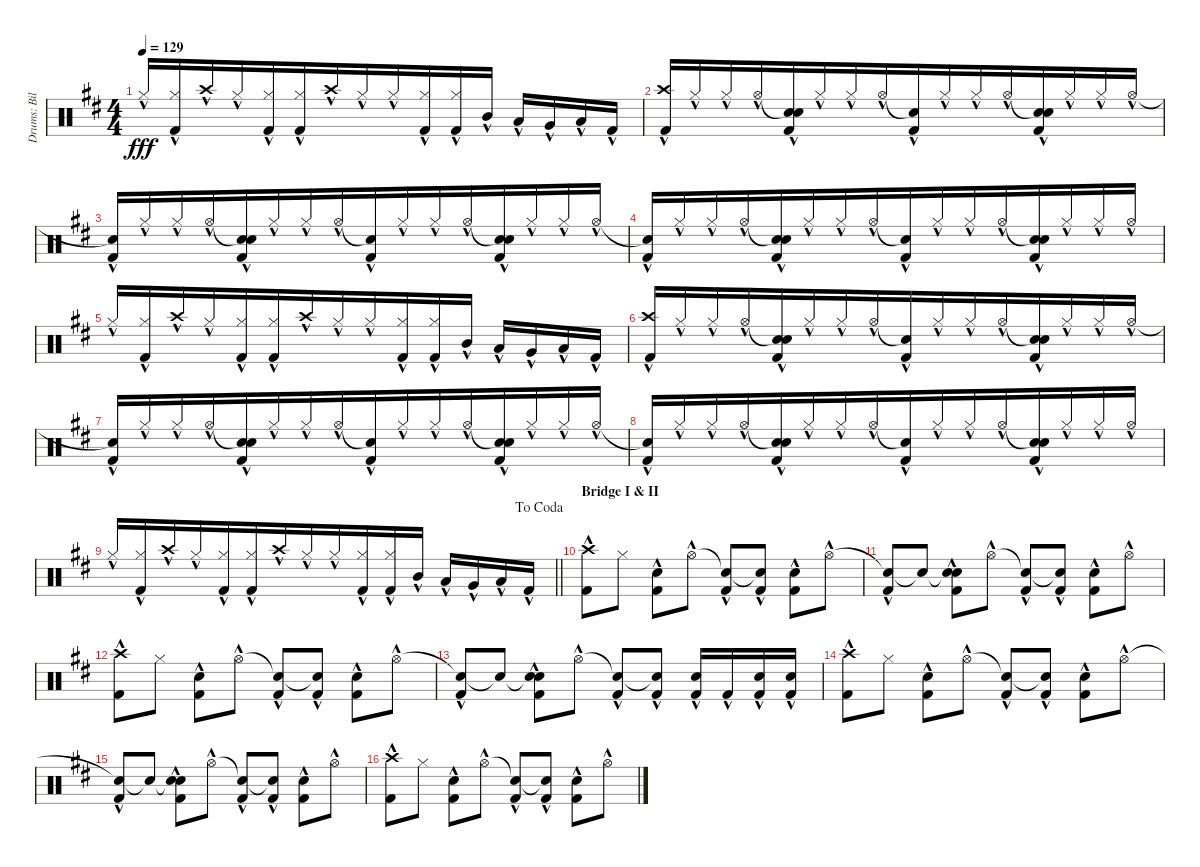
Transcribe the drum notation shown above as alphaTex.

\track ("Drums: Bill" "Drums: Bil") {instrument percussion}
\staff {score}
\articulation defaults
\ts (4 4)
\tempo 129
\clef neutral
\ks d "Hi-Hat (closed)"{hac}.16{dy fff beam Up beam merge}
("Hi-Hat (closed)"{hac} "Kick (hit) 2"{hac}).16{beam Up} "Crash high (hit)"{hac}.16{beam merge} "Hi-Hat (closed)"{hac}.16{beam Up beam merge} ("Hi-Hat (closed)"{hac} "Kick (hit) 2"{hac}).16{beam Up beam merge} ("Hi-Hat (closed)"{hac} "Kick (hit) 2"{hac}).16{beam Up} "Crash high (hit)"{hac}.16{beam merge} "Hi-Hat (closed)"{hac}.16{beam Up beam merge} "Hi-Hat (closed)"{hac}.16{beam Up beam merge} ("Hi-Hat (closed)"{hac} "Kick (hit) 2"{hac}).16{beam Up beam merge} ("Hi-Hat (closed)"{hac} "Kick (hit) 2"{hac}).16{beam Up} "Mid Tom (hit)"{hac}.16 "Low Tom (hit)"{hac}.16 "Very Low Tom (hit)"{hac}.16 "Low Floor Tom (hit)"{hac}.16 "Kick (hit) 2"{hac}.16 |
("Crash high (hit)"{hac} "Kick (hit) 2"{hac}).16{beam Up beam merge} "Hi-Hat (closed)"{hac}.16{beam Up beam merge} "Hi-Hat (closed)"{hac}.16{beam Up beam merge} "Hi-Hat (open)"{hac}.16{beam Up beam merge} ("Snare (hit)"{t} "Electric Snare (hit)"{hac} "Kick (hit) 2"{hac}).16{beam Up beam merge} "Hi-Hat (closed)"{hac}.16{beam Up beam merge} "Hi-Hat (closed)"{hac}.16{beam Up beam merge} "Hi-Hat (open)"{hac}.16{beam Up beam merge} ("Snare (hit)"{t} "Kick (hit) 2"{hac}).16{beam Up beam merge} "Hi-Hat (closed)"{hac}.16{beam Up beam merge} "Hi-Hat (closed)"{hac}.16{beam Up beam merge} "Hi-Hat (open)"{hac}.16{beam Up beam merge} ("Snare (hit)"{t} "Electric Snare (hit)"{hac} "Kick (hit) 2"{hac}).16{beam Up beam merge} "Hi-Hat (closed)"{hac}.16{beam Up beam merge} "Hi-Hat (closed)"{hac}.16{beam Up beam merge} "Hi-Hat (open)"{hac}.16{beam Up} |
("Snare (hit)"{t} "Kick (hit) 2"{hac}).16{beam Up beam merge} "Hi-Hat (closed)"{hac}.16{beam Up beam merge} "Hi-Hat (closed)"{hac}.16{beam Up beam merge} "Hi-Hat (open)"{hac}.16{beam Up beam merge} ("Snare (hit)"{t} "Electric Snare (hit)"{hac} "Kick (hit) 2"{hac}).16{beam Up beam merge} "Hi-Hat (closed)"{hac}.16{beam Up beam merge} "Hi-Hat (closed)"{hac}.16{beam Up beam merge} "Hi-Hat (open)"{hac}.16{beam Up beam merge} ("Snare (hit)"{t} "Kick (hit) 2"{hac}).16{beam Up beam merge} "Hi-Hat (closed)"{hac}.16{beam Up beam merge} "Hi-Hat (closed)"{hac}.16{beam Up beam merge} "Hi-Hat (open)"{hac}.16{beam Up beam merge} ("Snare (hit)"{t} "Electric Snare (hit)" "Kick (hit) 2"{hac}).16{beam Up beam merge} "Hi-Hat (closed)"{hac}.16{beam Up beam merge} "Hi-Hat (closed)"{hac}.16{beam Up beam merge} "Hi-Hat (open)"{hac}.16{beam Up} |
("Snare (hit)"{t} "Kick (hit) 2"{hac}).16{beam Up beam merge} "Hi-Hat (closed)"{hac}.16{beam Up beam merge} "Hi-Hat (closed)"{hac}.16{beam Up beam merge} "Hi-Hat (open)"{hac}.16{beam Up beam merge} ("Snare (hit)"{t} "Electric Snare (hit)"{hac} "Kick (hit) 2"{hac}).16{beam Up beam merge} "Hi-Hat (closed)"{hac}.16{beam Up beam merge} "Hi-Hat (closed)"{hac}.16{beam Up beam merge} "Hi-Hat (open)"{hac}.16{beam Up beam merge} ("Snare (hit)"{t} "Kick (hit) 2"{hac}).16{beam Up beam merge} "Hi-Hat (closed)"{hac}.16{beam Up beam merge} "Hi-Hat (closed)"{hac}.16{beam Up beam merge} "Hi-Hat (open)"{hac}.16{beam Up beam merge} ("Snare (hit)"{t} "Electric Snare (hit)" "Kick (hit) 2"{hac}).16{beam Up beam merge} "Hi-Hat (closed)"{hac}.16{beam Up beam merge} "Hi-Hat (closed)"{hac}.16{beam Up beam merge} "Hi-Hat (open)"{hac}.16{beam Up} |
"Hi-Hat (closed)"{hac}.16{beam Up beam merge} ("Hi-Hat (closed)"{hac} "Kick (hit) 2"{hac}).16{beam Up} "Crash high (hit)"{hac}.16{beam merge} "Hi-Hat (closed)"{hac}.16{beam Up beam merge} ("Hi-Hat (closed)"{hac} "Kick (hit) 2"{hac}).16{beam Up beam merge} ("Hi-Hat (closed)"{hac} "Kick (hit) 2"{hac}).16{beam Up} "Crash high (hit)"{hac}.16{beam merge} "Hi-Hat (closed)"{hac}.16{beam Up beam merge} "Hi-Hat (closed)"{hac}.16{beam Up beam merge} ("Hi-Hat (closed)"{hac} "Kick (hit) 2"{hac}).16{beam Up beam merge} ("Hi-Hat (closed)"{hac} "Kick (hit) 2"{hac}).16{beam Up} "Mid Tom (hit)"{hac}.16 "Low Tom (hit)"{hac}.16 "Very Low Tom (hit)"{hac}.16 "Low Floor Tom (hit)"{hac}.16 "Kick (hit) 2"{hac}.16 |
("Crash high (hit)"{hac} "Kick (hit) 2"{hac}).16{beam Up beam merge} "Hi-Hat (closed)"{hac}.16{beam Up beam merge} "Hi-Hat (closed)"{hac}.16{beam Up beam merge} "Hi-Hat (open)"{hac}.16{beam Up beam merge} ("Snare (hit)"{t} "Electric Snare (hit)"{hac} "Kick (hit) 2"{hac}).16{beam Up beam merge} "Hi-Hat (closed)"{hac}.16{beam Up beam merge} "Hi-Hat (closed)"{hac}.16{beam Up beam merge} "Hi-Hat (open)"{hac}.16{beam Up beam merge} ("Snare (hit)"{t} "Kick (hit) 2"{hac}).16{beam Up beam merge} "Hi-Hat (closed)"{hac}.16{beam Up beam merge} "Hi-Hat (closed)"{hac}.16{beam Up beam merge} "Hi-Hat (open)"{hac}.16{beam Up beam merge} ("Snare (hit)"{t} "Electric Snare (hit)"{hac} "Kick (hit) 2"{hac}).16{beam Up beam merge} "Hi-Hat (closed)"{hac}.16{beam Up beam merge} "Hi-Hat (closed)"{hac}.16{beam Up beam merge} "Hi-Hat (open)"{hac}.16{beam Up} |
("Snare (hit)"{t} "Kick (hit) 2"{hac}).16{beam Up beam merge} "Hi-Hat (closed)"{hac}.16{beam Up beam merge} "Hi-Hat (closed)"{hac}.16{beam Up beam merge} "Hi-Hat (open)"{hac}.16{beam Up beam merge} ("Snare (hit)"{t} "Electric Snare (hit)"{hac} "Kick (hit) 2"{hac}).16{beam Up beam merge} "Hi-Hat (closed)"{hac}.16{beam Up beam merge} "Hi-Hat (closed)"{hac}.16{beam Up beam merge} "Hi-Hat (open)"{hac}.16{beam Up beam merge} ("Snare (hit)"{t} "Kick (hit) 2"{hac}).16{beam Up beam merge} "Hi-Hat (closed)"{hac}.16{beam Up beam merge} "Hi-Hat (closed)"{hac}.16{beam Up beam merge} "Hi-Hat (open)"{hac}.16{beam Up beam merge} ("Snare (hit)"{t} "Electric Snare (hit)" "Kick (hit) 2"{hac}).16{beam Up beam merge} "Hi-Hat (closed)"{hac}.16{beam Up beam merge} "Hi-Hat (closed)"{hac}.16{beam Up beam merge} "Hi-Hat (open)"{hac}.16{beam Up} |
("Snare (hit)"{t} "Kick (hit) 2"{hac}).16{beam Up beam merge} "Hi-Hat (closed)"{hac}.16{beam Up beam merge} "Hi-Hat (closed)"{hac}.16{beam Up beam merge} "Hi-Hat (open)"{hac}.16{beam Up beam merge} ("Snare (hit)"{t} "Electric Snare (hit)"{hac} "Kick (hit) 2"{hac}).16{beam Up beam merge} "Hi-Hat (closed)"{hac}.16{beam Up beam merge} "Hi-Hat (closed)"{hac}.16{beam Up beam merge} "Hi-Hat (open)"{hac}.16{beam Up beam merge} ("Snare (hit)"{t} "Kick (hit) 2"{hac}).16{beam Up beam merge} "Hi-Hat (closed)"{hac}.16{beam Up beam merge} "Hi-Hat (closed)"{hac}.16{beam Up beam merge} "Hi-Hat (open)"{hac}.16{beam Up beam merge} ("Snare (hit)"{t} "Electric Snare (hit)" "Kick (hit) 2"{hac}).16{beam Up beam merge} "Hi-Hat (closed)"{hac}.16{beam Up beam merge} "Hi-Hat (closed)"{hac}.16{beam Up beam merge} "Hi-Hat (open)"{hac}.16{beam Up} |
\jump dacoda
\barLineRight lightlight "Hi-Hat (closed)"{hac}.16{beam Up beam merge}
("Hi-Hat (closed)"{hac} "Kick (hit) 2"{hac}).16{beam Up} "Crash high (hit)"{hac}.16{beam merge} "Hi-Hat (closed)"{hac}.16{beam Up beam merge} ("Hi-Hat (closed)"{hac} "Kick (hit) 2"{hac}).16{beam Up beam merge} ("Hi-Hat (closed)"{hac} "Kick (hit) 2"{hac}).16{beam Up} "Crash high (hit)"{hac}.16{beam merge} "Hi-Hat (closed)"{hac}.16{beam Up beam merge} "Hi-Hat (closed)"{hac}.16{beam Up beam merge} ("Hi-Hat (closed)"{hac} "Kick (hit) 2"{hac}).16{beam Up beam merge} ("Hi-Hat (closed)"{hac} "Kick (hit) 2"{hac}).16{beam Up} "Mid Tom (hit)"{hac}.16 "Low Tom (hit)"{hac}.16 "Very Low Tom (hit)"{hac}.16 "Low Floor Tom (hit)"{hac}.16 "Kick (hit) 2"{hac}.16 |
\section ("" "Bridge I & II")
("Crash high (hit)"{hac} "Kick (hit) 2"{hac}).8 "Hi-Hat (closed)".8 ("Electric Snare (hit)"{hac} "Kick (hit) 2"{hac}).8 "Hi-Hat (open)"{hac}.8 ("Snare (hit)"{t} "Kick (hit) 2"{hac}).8 ("Snare (hit)"{t} "Kick (hit) 2"{hac}).8 ("Electric Snare (hit)"{hac} "Kick (hit) 2"{hac}).8 "Hi-Hat (open)"{hac}.8 |
("Snare (hit)"{t} "Kick (hit) 2"{hac}).8 "Snare (hit)"{t}.8 ("Snare (hit)"{t} "Electric Snare (hit)"{hac} "Kick (hit) 2"{hac}).8 "Hi-Hat (open)"{hac}.8 ("Snare (hit)"{t} "Kick (hit) 2"{hac}).8 ("Snare (hit)"{t} "Kick (hit) 2"{hac}).8 ("Electric Snare (hit)"{hac} "Kick (hit) 2"{hac}).8 "Hi-Hat (open)"{hac}.8 |
("Crash high (hit)"{hac} "Kick (hit) 2"{hac}).8 "Hi-Hat (closed)".8 ("Electric Snare (hit)"{hac} "Kick (hit) 2"{hac}).8 "Hi-Hat (open)"{hac}.8 ("Snare (hit)"{t} "Kick (hit) 2"{hac}).8 ("Snare (hit)"{t} "Kick (hit) 2"{hac}).8 ("Electric Snare (hit)"{hac} "Kick (hit) 2"{hac}).8 "Hi-Hat (open)"{hac}.8 |
("Snare (hit)"{t} "Kick (hit) 2"{hac}).8 "Snare (hit)"{t}.8 ("Snare (hit)"{t} "Electric Snare (hit)"{hac} "Kick (hit) 2"{hac}).8 "Hi-Hat (open)"{hac}.8 ("Snare (hit)"{t} "Kick (hit) 2"{hac}).8 ("Snare (hit)"{t} "Kick (hit) 2"{hac}).8 ("Electric Snare (hit)"{hac} "Kick (hit) 2"{hac}).16 "Kick (hit) 2"{hac}.16 ("Electric Snare (hit)"{hac} "Kick (hit) 2"{hac}).16 ("Electric Snare (hit)"{hac} "Kick (hit) 2"{hac}).16 |
("Crash high (hit)"{hac} "Kick (hit) 2"{hac}).8 "Hi-Hat (closed)".8 ("Electric Snare (hit)"{hac} "Kick (hit) 2"{hac}).8 "Hi-Hat (open)"{hac}.8 ("Snare (hit)"{t} "Kick (hit) 2"{hac}).8 ("Snare (hit)"{t} "Kick (hit) 2"{hac}).8 ("Electric Snare (hit)"{hac} "Kick (hit) 2"{hac}).8 "Hi-Hat (open)"{hac}.8 |
("Snare (hit)"{t} "Kick (hit) 2"{hac}).8 "Snare (hit)"{t}.8 ("Snare (hit)"{t} "Electric Snare (hit)"{hac} "Kick (hit) 2"{hac}).8 "Hi-Hat (open)"{hac}.8 ("Snare (hit)"{t} "Kick (hit) 2"{hac}).8 ("Snare (hit)"{t} "Kick (hit) 2"{hac}).8 ("Electric Snare (hit)"{hac} "Kick (hit) 2"{hac}).8 "Hi-Hat (open)"{hac}.8 |
("Crash high (hit)"{hac} "Kick (hit) 2"{hac}).8 "Hi-Hat (closed)".8 ("Electric Snare (hit)"{hac} "Kick (hit) 2"{hac}).8 "Hi-Hat (open)"{hac}.8 ("Snare (hit)"{t} "Kick (hit) 2"{hac}).8 ("Snare (hit)"{t} "Kick (hit) 2"{hac}).8 ("Electric Snare (hit)"{hac} "Kick (hit) 2"{hac}).8 "Hi-Hat (open)"{hac}.8
